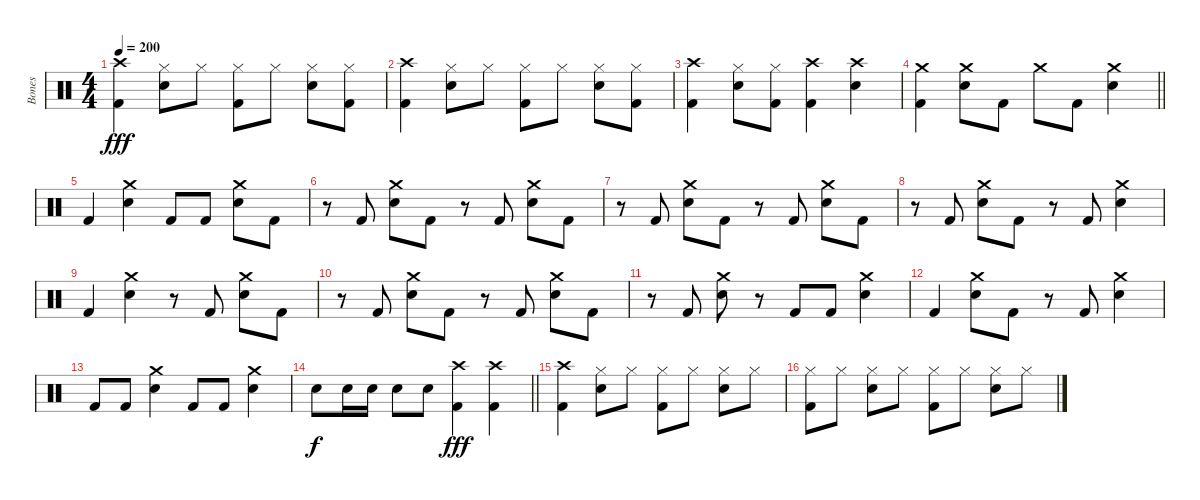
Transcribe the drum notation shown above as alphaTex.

\track ("Bones " "Bones ") {instrument percussion}
\staff {score}
\articulation defaults
\ts (4 4)
\tempo 200
\clef neutral
\ks c
("Crash high (hit)" "Kick (hit) 2").4{dy fff} ("Hi-Hat (closed)" "Snare (hit) 2").8 "Hi-Hat (closed)".8 ("Hi-Hat (closed)" "Kick (hit) 2").8 "Hi-Hat (closed)".8 ("Hi-Hat (closed)" "Snare (hit) 2").8 ("Hi-Hat (closed)" "Kick (hit) 2").8 |
("Crash high (hit)" "Kick (hit) 2").4 ("Hi-Hat (closed)" "Snare (hit) 2").8 "Hi-Hat (closed)".8 ("Hi-Hat (closed)" "Kick (hit) 2").8 "Hi-Hat (closed)".8 ("Hi-Hat (closed)" "Snare (hit) 2").8 ("Hi-Hat (closed)" "Kick (hit) 2").8 |
("Crash high (hit)" "Kick (hit) 2").4 ("Hi-Hat (closed)" "Snare (hit) 2").8 ("Hi-Hat (closed)" "Kick (hit) 2").8 ("Crash high (hit)" "Kick (hit) 2").4 ("Crash high (hit)" "Snare (hit) 2").4 |
\barLineRight lightlight
("Crash medium (hit)" "Kick (hit) 2").4 ("Crash medium (hit)" "Snare (hit) 2").8 "Kick (hit) 2".8 "Crash medium (hit)".8 "Kick (hit) 2".8 ("Crash medium (hit)" "Snare (hit) 2").4 |
"Kick (hit) 2".4 ("Crash medium (hit)" "Snare (hit) 2").4 "Kick (hit) 2".8 "Kick (hit) 2".8 ("Crash medium (hit)" "Snare (hit) 2").8 "Kick (hit) 2".8 |
r.8 "Kick (hit) 2".8 ("Crash medium (hit)" "Snare (hit) 2").8 "Kick (hit) 2".8 r.8 "Kick (hit) 2".8 ("Crash medium (hit)" "Snare (hit) 2").8 "Kick (hit) 2".8 |
r.8 "Kick (hit) 2".8 ("Crash medium (hit)" "Snare (hit) 2").8 "Kick (hit) 2".8 r.8 "Kick (hit) 2".8 ("Crash medium (hit)" "Snare (hit) 2").8 "Kick (hit) 2".8 |
r.8 "Kick (hit) 2".8 ("Crash medium (hit)" "Snare (hit) 2").8 "Kick (hit) 2".8 r.8 "Kick (hit) 2".8 ("Crash medium (hit)" "Snare (hit) 2").4 |
"Kick (hit) 2".4 ("Crash medium (hit)" "Snare (hit) 2").4 r.8 "Kick (hit) 2".8 ("Crash medium (hit)" "Snare (hit) 2").8 "Kick (hit) 2".8 |
r.8 "Kick (hit) 2".8 ("Crash medium (hit)" "Snare (hit) 2").8 "Kick (hit) 2".8 r.8 "Kick (hit) 2".8 ("Crash medium (hit)" "Snare (hit) 2").8 "Kick (hit) 2".8 |
r.8 "Kick (hit) 2".8 ("Crash medium (hit)" "Snare (hit) 2").8 r.8 "Kick (hit) 2".8 "Kick (hit) 2".8 ("Crash medium (hit)" "Snare (hit) 2").4 |
"Kick (hit) 2".4 ("Crash medium (hit)" "Snare (hit) 2").8 "Kick (hit) 2".8 r.8 "Kick (hit) 2".8 ("Crash medium (hit)" "Snare (hit) 2").4 |
"Kick (hit) 2".8 "Kick (hit) 2".8 ("Crash medium (hit)" "Snare (hit) 2").4 "Kick (hit) 2".8 "Kick (hit) 2".8 ("Crash medium (hit)" "Snare (hit) 2").4 |
\barLineRight lightlight "Snare (hit) 2".8{dy f} "Snare (hit) 2".16 "Snare (hit) 2".16 "Snare (hit) 2".8 "Snare (hit) 2".8
("Crash high (hit)" "Kick (hit) 2").4{dy fff} ("Crash high (hit)" "Kick (hit) 2").4 |
("Crash high (hit)" "Kick (hit) 2").4 ("Hi-Hat (closed)" "Snare (hit) 2").8 "Hi-Hat (closed)".8 ("Hi-Hat (closed)" "Kick (hit) 2").8 "Hi-Hat (closed)".8 ("Hi-Hat (closed)" "Snare (hit) 2").8 "Hi-Hat (closed)".8 |
("Hi-Hat (closed)" "Kick (hit) 2").8 "Hi-Hat (closed)".8 ("Hi-Hat (closed)" "Snare (hit) 2").8 "Hi-Hat (closed)".8 ("Hi-Hat (closed)" "Kick (hit) 2").8 "Hi-Hat (closed)".8 ("Hi-Hat (closed)" "Snare (hit) 2").8 "Hi-Hat (closed)".8
